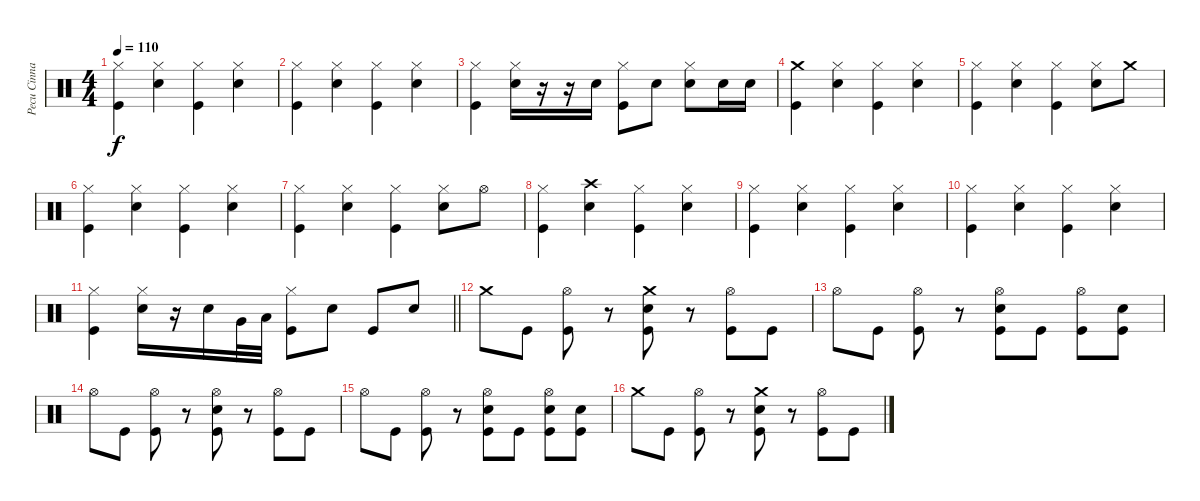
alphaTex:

\track ("Pecu Cinnari" "Pecu Cinna") {instrument percussion}
\staff {score}
\articulation defaults
\ts (4 4)
\tempo 110
\clef neutral
\ks c
("Hi-Hat (closed)" "Kick (hit)").4{dy f} ("Hi-Hat (closed)" "Snare (hit) 2").4 ("Hi-Hat (closed)" "Kick (hit)").4 ("Hi-Hat (closed)" "Snare (hit) 2").4 |
("Hi-Hat (closed)" "Kick (hit)").4 ("Hi-Hat (closed)" "Snare (hit) 2").4 ("Hi-Hat (closed)" "Kick (hit)").4 ("Hi-Hat (closed)" "Snare (hit) 2").4 |
("Hi-Hat (closed)" "Kick (hit)").4 ("Hi-Hat (closed)" "Snare (hit) 2").16 r.16 r.16 "Snare (hit) 2".16 ("Hi-Hat (closed)" "Kick (hit)").8 "Snare (hit) 2".8 ("Hi-Hat (closed)" "Snare (hit) 2").8 "Snare (hit) 2".16 "Snare (hit) 2".16 |
("Crash medium (hit)" "Kick (hit)").4 ("Hi-Hat (closed)" "Snare (hit) 2").4 ("Hi-Hat (closed)" "Kick (hit)").4 ("Hi-Hat (closed)" "Snare (hit) 2").4 |
("Hi-Hat (closed)" "Kick (hit)").4 ("Hi-Hat (closed)" "Snare (hit) 2").4 ("Hi-Hat (closed)" "Kick (hit)").4 ("Hi-Hat (closed)" "Snare (hit) 2").8 "Crash medium (hit)".8 |
("Hi-Hat (closed)" "Kick (hit)").4 ("Hi-Hat (closed)" "Snare (hit) 2").4 ("Hi-Hat (closed)" "Kick (hit)").4 ("Hi-Hat (closed)" "Snare (hit) 2").4 |
("Hi-Hat (closed)" "Kick (hit)").4 ("Hi-Hat (closed)" "Snare (hit) 2").4 ("Hi-Hat (closed)" "Kick (hit)").4 ("Hi-Hat (closed)" "Snare (hit) 2").8 "Hi-Hat (open)".8 |
("Hi-Hat (closed)" "Kick (hit)").4 ("Crash high (hit)" "Snare (hit) 2").4 ("Hi-Hat (closed)" "Kick (hit)").4 ("Hi-Hat (closed)" "Snare (hit) 2").4 |
("Hi-Hat (closed)" "Kick (hit)").4 ("Hi-Hat (closed)" "Snare (hit) 2").4 ("Hi-Hat (closed)" "Kick (hit)").4 ("Hi-Hat (closed)" "Snare (hit) 2").4 |
("Hi-Hat (closed)" "Kick (hit)").4 ("Hi-Hat (closed)" "Snare (hit) 2").4 ("Hi-Hat (closed)" "Kick (hit)").4 ("Hi-Hat (closed)" "Snare (hit) 2").4 |
\barLineRight lightlight
("Hi-Hat (closed)" "Kick (hit)").4 ("Hi-Hat (closed)" "Snare (hit) 2").16 r.16 "Snare (hit) 2".16 "Very Low Tom (hit)".32 "Low Floor Tom (hit)".32 ("Hi-Hat (closed)" "Kick (hit)").8 "Snare (hit) 2".8 "Kick (hit)".8 "Snare (hit) 2".8 |
\section ("" "")
"Crash medium (hit)".8 "Kick (hit)".8 ("Hi-Hat (open)" "Kick (hit)").8 r.8 ("Crash medium (hit)" "Snare (hit) 2" "Kick (hit)").8 r.8 ("Hi-Hat (open)" "Kick (hit)").8 "Kick (hit)".8 |
"Hi-Hat (open)".8 "Kick (hit)".8 ("Hi-Hat (open)" "Kick (hit)").8 r.8 ("Hi-Hat (open)" "Snare (hit) 2" "Kick (hit)").8 "Kick (hit)".8 ("Hi-Hat (open)" "Kick (hit)").8 ("Snare (hit) 2" "Kick (hit)").8 |
"Hi-Hat (open)".8 "Kick (hit)".8 ("Hi-Hat (open)" "Kick (hit)").8 r.8 ("Hi-Hat (open)" "Snare (hit) 2" "Kick (hit)").8 r.8 ("Hi-Hat (open)" "Kick (hit)").8 "Kick (hit)".8 |
"Hi-Hat (open)".8 "Kick (hit)".8 ("Hi-Hat (open)" "Kick (hit)").8 r.8 ("Hi-Hat (open)" "Snare (hit) 2" "Kick (hit)").8 "Kick (hit)".8 ("Hi-Hat (open)" "Snare (hit) 2" "Kick (hit)").8 ("Snare (hit) 2" "Kick (hit)").8 |
"Crash medium (hit)".8 "Kick (hit)".8 ("Hi-Hat (open)" "Kick (hit)").8 r.8 ("Crash medium (hit)" "Snare (hit) 2" "Kick (hit)").8 r.8 ("Hi-Hat (open)" "Kick (hit)").8 "Kick (hit)".8
